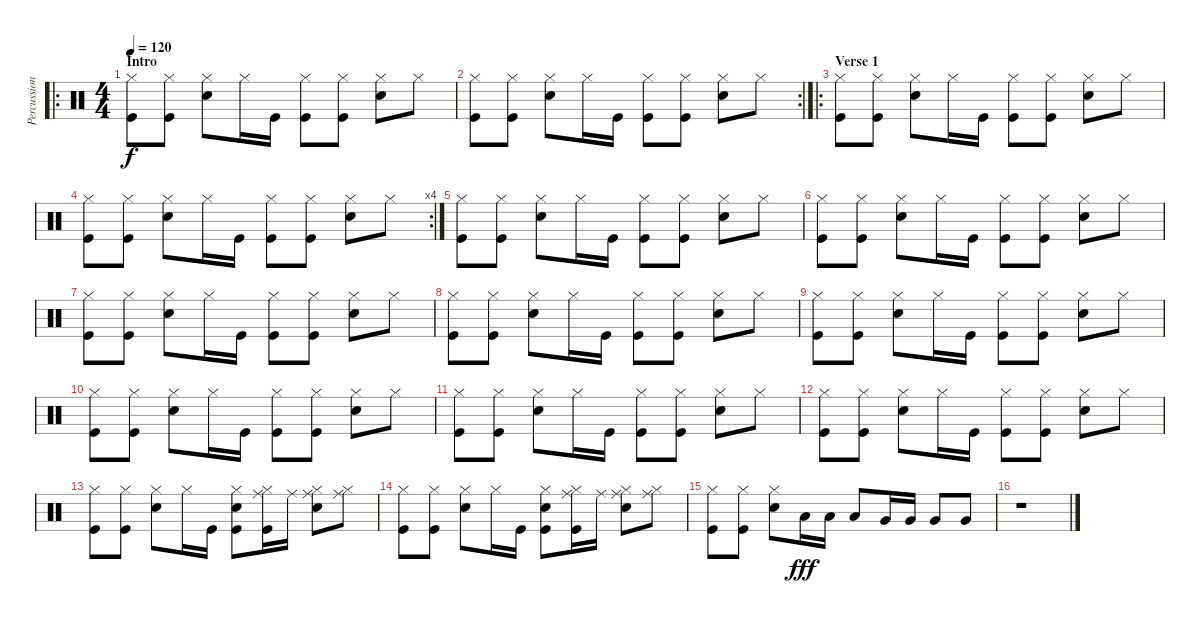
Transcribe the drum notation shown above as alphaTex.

\track ("Percussion" "Percussion") {instrument percussion}
\staff {score}
\articulation defaults
\ro
\ts (4 4)
\section ("" "Intro")
\tempo 120
\clef neutral
\ks c
("Hi-Hat (closed)" "Kick (hit)").8{dy f} ("Hi-Hat (closed)" "Kick (hit)").8 ("Hi-Hat (closed)" "Snare (hit) 2").8 "Hi-Hat (closed)".16 "Kick (hit)".16 ("Hi-Hat (closed)" "Kick (hit)").8 ("Hi-Hat (closed)" "Kick (hit)").8 ("Hi-Hat (closed)" "Snare (hit) 2").8 "Hi-Hat (closed)".8 |
\rc 2
("Hi-Hat (closed)" "Kick (hit)").8 ("Hi-Hat (closed)" "Kick (hit)").8 ("Hi-Hat (closed)" "Snare (hit) 2").8 "Hi-Hat (closed)".16 "Kick (hit)".16 ("Hi-Hat (closed)" "Kick (hit)").8 ("Hi-Hat (closed)" "Kick (hit)").8 ("Hi-Hat (closed)" "Snare (hit) 2").8 "Hi-Hat (closed)".8 |
\ro
\section ("" "Verse 1")
("Hi-Hat (closed)" "Kick (hit)").8 ("Hi-Hat (closed)" "Kick (hit)").8 ("Hi-Hat (closed)" "Snare (hit) 2").8 "Hi-Hat (closed)".16 "Kick (hit)".16 ("Hi-Hat (closed)" "Kick (hit)").8 ("Hi-Hat (closed)" "Kick (hit)").8 ("Hi-Hat (closed)" "Snare (hit) 2").8 "Hi-Hat (closed)".8 |
\rc 4
("Hi-Hat (closed)" "Kick (hit)").8 ("Hi-Hat (closed)" "Kick (hit)").8 ("Hi-Hat (closed)" "Snare (hit) 2").8 "Hi-Hat (closed)".16 "Kick (hit)".16 ("Hi-Hat (closed)" "Kick (hit)").8 ("Hi-Hat (closed)" "Kick (hit)").8 ("Hi-Hat (closed)" "Snare (hit) 2").8 "Hi-Hat (closed)".8 |
("Hi-Hat (closed)" "Kick (hit)").8 ("Hi-Hat (closed)" "Kick (hit)").8 ("Hi-Hat (closed)" "Snare (hit) 2").8 "Hi-Hat (closed)".16 "Kick (hit)".16 ("Hi-Hat (closed)" "Kick (hit)").8 ("Hi-Hat (closed)" "Kick (hit)").8 ("Hi-Hat (closed)" "Snare (hit) 2").8 "Hi-Hat (closed)".8 |
("Hi-Hat (closed)" "Kick (hit)").8 ("Hi-Hat (closed)" "Kick (hit)").8 ("Hi-Hat (closed)" "Snare (hit) 2").8 "Hi-Hat (closed)".16 "Kick (hit)".16 ("Hi-Hat (closed)" "Kick (hit)").8 ("Hi-Hat (closed)" "Kick (hit)").8 ("Hi-Hat (closed)" "Snare (hit) 2").8 "Hi-Hat (closed)".8 |
("Hi-Hat (closed)" "Kick (hit)").8 ("Hi-Hat (closed)" "Kick (hit)").8 ("Hi-Hat (closed)" "Snare (hit) 2").8 "Hi-Hat (closed)".16 "Kick (hit)".16 ("Hi-Hat (closed)" "Kick (hit)").8 ("Hi-Hat (closed)" "Kick (hit)").8 ("Hi-Hat (closed)" "Snare (hit) 2").8 "Hi-Hat (closed)".8 |
("Hi-Hat (closed)" "Kick (hit)").8 ("Hi-Hat (closed)" "Kick (hit)").8 ("Hi-Hat (closed)" "Snare (hit) 2").8 "Hi-Hat (closed)".16 "Kick (hit)".16 ("Hi-Hat (closed)" "Kick (hit)").8 ("Hi-Hat (closed)" "Kick (hit)").8 ("Hi-Hat (closed)" "Snare (hit) 2").8 "Hi-Hat (closed)".8 |
("Hi-Hat (closed)" "Kick (hit)").8 ("Hi-Hat (closed)" "Kick (hit)").8 ("Hi-Hat (closed)" "Snare (hit) 2").8 "Hi-Hat (closed)".16 "Kick (hit)".16 ("Hi-Hat (closed)" "Kick (hit)").8 ("Hi-Hat (closed)" "Kick (hit)").8 ("Hi-Hat (closed)" "Snare (hit) 2").8 "Hi-Hat (closed)".8 |
("Hi-Hat (closed)" "Kick (hit)").8 ("Hi-Hat (closed)" "Kick (hit)").8 ("Hi-Hat (closed)" "Snare (hit) 2").8 "Hi-Hat (closed)".16 "Kick (hit)".16 ("Hi-Hat (closed)" "Kick (hit)").8 ("Hi-Hat (closed)" "Kick (hit)").8 ("Hi-Hat (closed)" "Snare (hit) 2").8 "Hi-Hat (closed)".8 |
("Hi-Hat (closed)" "Kick (hit)").8 ("Hi-Hat (closed)" "Kick (hit)").8 ("Hi-Hat (closed)" "Snare (hit) 2").8 "Hi-Hat (closed)".16 "Kick (hit)".16 ("Hi-Hat (closed)" "Kick (hit)").8 ("Hi-Hat (closed)" "Kick (hit)").8 ("Hi-Hat (closed)" "Snare (hit) 2").8 "Hi-Hat (closed)".8 |
("Hi-Hat (closed)" "Kick (hit)").8 ("Hi-Hat (closed)" "Kick (hit)").8 ("Hi-Hat (closed)" "Snare (hit) 2").8 "Hi-Hat (closed)".16 "Kick (hit)".16 ("Hi-Hat (closed)" "Kick (hit)").8 ("Hi-Hat (closed)" "Kick (hit)").8 ("Hi-Hat (closed)" "Snare (hit) 2").8 "Hi-Hat (closed)".8 |
("Hi-Hat (closed)" "Kick (hit)").8 ("Hi-Hat (closed)" "Kick (hit)").8 ("Hi-Hat (closed)" "Snare (hit) 2").8 "Hi-Hat (closed)".16 "Kick (hit)".16 ("Hi-Hat (closed)" "Hand Clap (hit)" "Kick (hit)").8 ("Hi-Hat (closed)" "Ride (middle)" "Kick (hit)").16 "Ride (middle)".16 ("Hi-Hat (closed)" "Ride (middle)" "Snare (hit) 2").8 ("Hi-Hat (closed)" "Ride (middle)").8 |
("Hi-Hat (closed)" "Kick (hit)").8 ("Hi-Hat (closed)" "Kick (hit)").8 ("Hi-Hat (closed)" "Snare (hit) 2").8 "Hi-Hat (closed)".16 "Kick (hit)".16 ("Hi-Hat (closed)" "Hand Clap (hit)" "Kick (hit)").8 ("Hi-Hat (closed)" "Ride (middle)" "Kick (hit)").16 "Ride (middle)".16 ("Hi-Hat (closed)" "Ride (middle)" "Snare (hit) 2").8 ("Hi-Hat (closed)" "Ride (middle)").8 |
("Hi-Hat (closed)" "Kick (hit)").8 ("Hi-Hat (closed)" "Kick (hit)").8 ("Hi-Hat (closed)" "Snare (hit) 2").8 "Low Tom (hit)".16{dy fff} "Low Tom (hit)".16 "Low Tom (hit)".8 "Very Low Tom (hit)".16 "Very Low Tom (hit)".16 "Very Low Tom (hit)".8 "Very Low Tom (hit)".8 |
r.1
